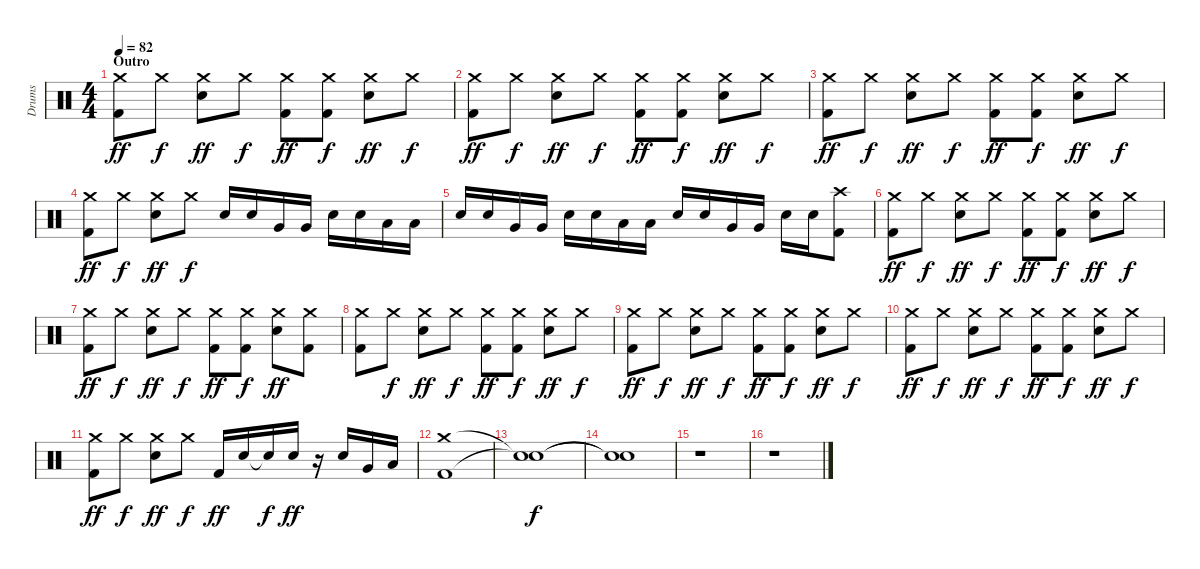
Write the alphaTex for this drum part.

\track ("Drums" "Drums") {instrument percussion}
\staff {score}
\articulation defaults
\ts (4 4)
\section ("" "Outro")
\tempo 82
\clef neutral
\ks c
("Crash medium (hit)" "Kick (hit) 2").8{dy ff} "Crash medium (hit)".8{dy f} ("Crash medium (hit)" "Electric Snare (hit)").8{dy ff} "Crash medium (hit)".8{dy f} ("Crash medium (hit)" "Kick (hit) 2").8{dy ff} ("Crash medium (hit)" "Kick (hit) 2").8{dy f} ("Crash medium (hit)" "Electric Snare (hit)").8{dy ff} "Crash medium (hit)".8{dy f} |
("Crash medium (hit)" "Kick (hit) 2").8{dy ff} "Crash medium (hit)".8{dy f} ("Crash medium (hit)" "Electric Snare (hit)").8{dy ff} "Crash medium (hit)".8{dy f} ("Crash medium (hit)" "Kick (hit) 2").8{dy ff} ("Crash medium (hit)" "Kick (hit) 2").8{dy f} ("Crash medium (hit)" "Electric Snare (hit)").8{dy ff} "Crash medium (hit)".8{dy f} |
("Crash medium (hit)" "Kick (hit) 2").8{dy ff} "Crash medium (hit)".8{dy f} ("Crash medium (hit)" "Electric Snare (hit)").8{dy ff} "Crash medium (hit)".8{dy f} ("Crash medium (hit)" "Kick (hit) 2").8{dy ff} ("Crash medium (hit)" "Kick (hit) 2").8{dy f} ("Crash medium (hit)" "Electric Snare (hit)").8{dy ff} "Crash medium (hit)".8{dy f} |
("Crash medium (hit)" "Kick (hit) 2").8{dy ff} "Crash medium (hit)".8{dy f} ("Crash medium (hit)" "Electric Snare (hit)").8{dy ff} "Crash medium (hit)".8{dy f} "Electric Snare (hit)".16 "Electric Snare (hit)".16 "Very Low Tom (hit)".16 "Very Low Tom (hit)".16 "Electric Snare (hit)".16 "Electric Snare (hit)".16 "Low Floor Tom (hit)".16 "Low Floor Tom (hit)".16 |
"Electric Snare (hit)".16 "Electric Snare (hit)".16 "Very Low Tom (hit)".16 "Very Low Tom (hit)".16 "Electric Snare (hit)".16 "Electric Snare (hit)".16 "Low Floor Tom (hit)".16 "Low Floor Tom (hit)".16 "Electric Snare (hit)".16 "Electric Snare (hit)".16 "Very Low Tom (hit)".16 "Very Low Tom (hit)".16 "Electric Snare (hit)".16 "Electric Snare (hit)".16 ("Crash high (hit)" "Kick (hit) 2").8 |
("Crash medium (hit)" "Kick (hit) 2").8{dy ff} "Crash medium (hit)".8{dy f} ("Crash medium (hit)" "Electric Snare (hit)").8{dy ff} "Crash medium (hit)".8{dy f} ("Crash medium (hit)" "Kick (hit) 2").8{dy ff} ("Crash medium (hit)" "Kick (hit) 2").8{dy f} ("Crash medium (hit)" "Electric Snare (hit)").8{dy ff} "Crash medium (hit)".8{dy f} |
("Crash medium (hit)" "Kick (hit) 2").8{dy ff} "Crash medium (hit)".8{dy f} ("Crash medium (hit)" "Electric Snare (hit)").8{dy ff} "Crash medium (hit)".8{dy f} ("Crash medium (hit)" "Kick (hit) 2").8{dy ff} ("Crash medium (hit)" "Kick (hit) 2").8{dy f} ("Crash medium (hit)" "Electric Snare (hit)").8{dy ff} ("Crash medium (hit)" "Kick (hit) 2").8 |
("Crash medium (hit)" "Kick (hit) 2").8 "Crash medium (hit)".8{dy f} ("Crash medium (hit)" "Electric Snare (hit)").8{dy ff} "Crash medium (hit)".8{dy f} ("Crash medium (hit)" "Kick (hit) 2").8{dy ff} ("Crash medium (hit)" "Kick (hit) 2").8{dy f} ("Crash medium (hit)" "Electric Snare (hit)").8{dy ff} "Crash medium (hit)".8{dy f} |
("Crash medium (hit)" "Kick (hit) 2").8{dy ff} "Crash medium (hit)".8{dy f} ("Crash medium (hit)" "Electric Snare (hit)").8{dy ff} "Crash medium (hit)".8{dy f} ("Crash medium (hit)" "Kick (hit) 2").8{dy ff} ("Crash medium (hit)" "Kick (hit) 2").8{dy f} ("Crash medium (hit)" "Electric Snare (hit)").8{dy ff} "Crash medium (hit)".8{dy f} |
("Crash medium (hit)" "Kick (hit) 2").8{dy ff} "Crash medium (hit)".8{dy f} ("Crash medium (hit)" "Electric Snare (hit)").8{dy ff} "Crash medium (hit)".8{dy f} ("Crash medium (hit)" "Kick (hit) 2").8{dy ff} ("Crash medium (hit)" "Kick (hit) 2").8{dy f} ("Crash medium (hit)" "Electric Snare (hit)").8{dy ff} "Crash medium (hit)".8{dy f} |
("Crash medium (hit)" "Kick (hit) 2").8{dy ff} "Crash medium (hit)".8{dy f} ("Crash medium (hit)" "Electric Snare (hit)").8{dy ff} "Crash medium (hit)".8{dy f} "Kick (hit) 2".16{dy ff} "Electric Snare (hit)".16 "Electric Snare (hit)"{t}.16{dy f} "Electric Snare (hit)".16{dy ff} r.16 "Electric Snare (hit)".16 "Very Low Tom (hit)".16 "Low Floor Tom (hit)".16 |
("Crash medium (hit)" "Kick (hit) 2").1 |
("Snare (hit)"{t} "Snare (hit)"{t}).1{dy f} |
("Snare (hit)"{t} "Snare (hit)"{t}).1 |
r.1 |
r.1
